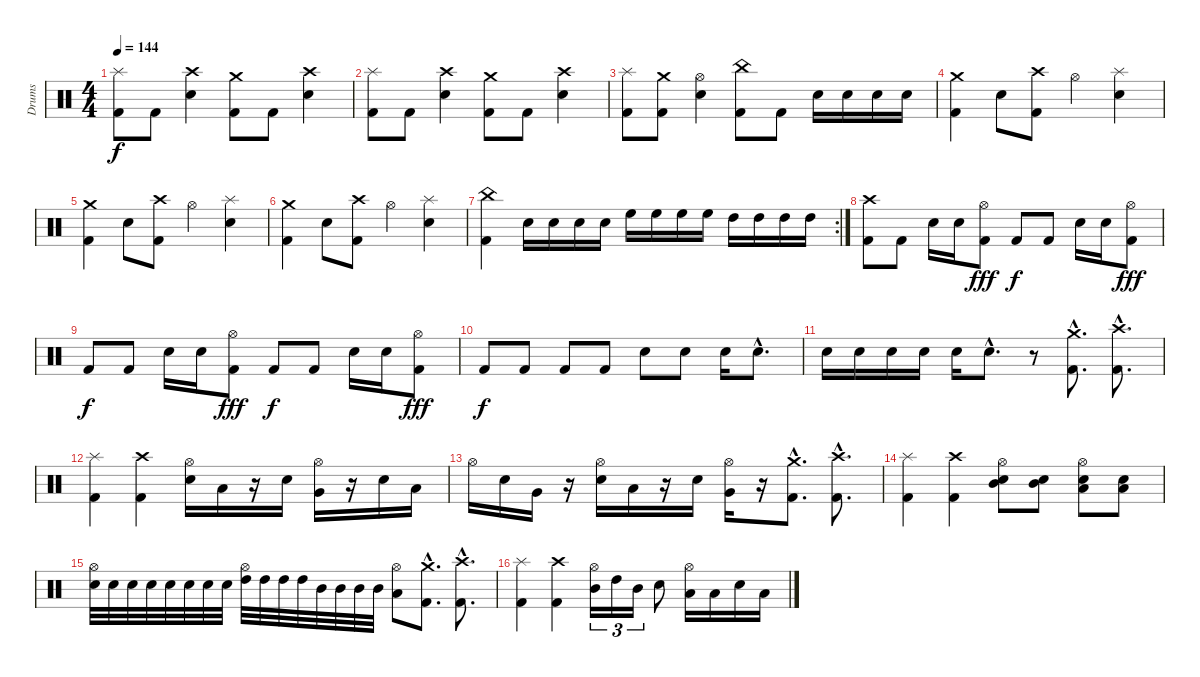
\track ("Drums" "Drums") {instrument percussion}
\staff {score}
\articulation defaults
\ts (4 4)
\tempo 144
\clef neutral
\ks c
("Kick (hit) 2" "Splash (hit)").8{dy f} "Kick (hit) 2".8 ("Snare (hit) 2" "Crash high (hit)").4 ("Kick (hit) 2" "Crash medium (hit)").8 "Kick (hit) 2".8 ("Snare (hit) 2" "Crash high (hit)").4 |
("Kick (hit) 2" "Splash (hit)").8 "Kick (hit) 2".8 ("Snare (hit) 2" "Crash high (hit)").4 ("Kick (hit) 2" "Crash medium (hit)").8 "Kick (hit) 2".8 ("Snare (hit) 2" "Crash high (hit)").4 |
("Kick (hit) 2" "Splash (hit)").8 ("Kick (hit) 2" "Crash medium (hit)").8 ("Snare (hit) 2" "Hi-Hat (open)").4 ("Kick (hit) 2" "China (hit)").8 "Kick (hit) 2".8 "Snare (hit) 2".16 "Snare (hit) 2".16 "Snare (hit) 2".16 "Snare (hit) 2".16 |
("Kick (hit) 2" "Crash medium (hit)").4 "Snare (hit) 2".8 ("Kick (hit) 2" "Crash high (hit)").8 "Hi-Hat (open)".4 ("Snare (hit) 2" "Splash (hit)").4 |
("Kick (hit) 2" "Crash medium (hit)").4 "Snare (hit) 2".8 ("Kick (hit) 2" "Crash high (hit)").8 "Hi-Hat (open)".4 ("Snare (hit) 2" "Splash (hit)").4 |
("Kick (hit) 2" "Crash medium (hit)").4 "Snare (hit) 2".8 ("Kick (hit) 2" "Crash high (hit)").8 "Hi-Hat (open)".4 ("Snare (hit) 2" "Splash (hit)").4 |
\rc 2
("Kick (hit) 2" "China (hit)").4 "Snare (hit) 2".16 "Snare (hit) 2".16 "Snare (hit) 2".16 "Snare (hit) 2".16 "High Floor Tom (hit)".16 "High Floor Tom (hit)".16 "High Floor Tom (hit)".16 "High Floor Tom (hit)".16 "High Tom (hit)".16 "High Tom (hit)".16 "High Tom (hit)".16 "High Tom (hit)".16 |
("Kick (hit) 2" "Crash high (hit)").8 "Kick (hit) 2".8 "Snare (hit) 2".16 "Snare (hit) 2".16 ("Kick (hit) 2" "Hi-Hat (open)").8{dy fff} "Kick (hit) 2".8{dy f} "Kick (hit) 2".8 "Snare (hit) 2".16 "Snare (hit) 2".16 ("Kick (hit) 2" "Hi-Hat (open)").8{dy fff} |
"Kick (hit) 2".8{dy f} "Kick (hit) 2".8 "Snare (hit) 2".16 "Snare (hit) 2".16 ("Kick (hit) 2" "Hi-Hat (open)").8{dy fff} "Kick (hit) 2".8{dy f} "Kick (hit) 2".8 "Snare (hit) 2".16 "Snare (hit) 2".16 ("Kick (hit) 2" "Hi-Hat (open)").8{dy fff} |
"Kick (hit) 2".8{dy f} "Kick (hit) 2".8 "Kick (hit) 2".8 "Kick (hit) 2".8 "Snare (hit) 2".8 "Snare (hit) 2".8 "Snare (hit) 2".16 "Snare (hit) 2"{hac}.8{d} |
"Snare (hit) 2".16 "Snare (hit) 2".16 "Snare (hit) 2".16 "Snare (hit) 2".16 "Snare (hit) 2".16 "Snare (hit) 2"{hac}.8{d} r.8 ("Kick (hit) 2"{hac} "Crash medium (hit)"{hac}).8{d} ("Kick (hit) 2"{hac} "Crash high (hit)"{hac}).8{d} |
("Kick (hit) 2" "Splash (hit)").4 ("Kick (hit) 2" "Crash high (hit)").4 ("Snare (hit) 2" "Hi-Hat (open)").16 "Low Floor Tom (hit)".16 r.16 "Snare (hit) 2".16 ("Very Low Tom (hit)" "Hi-Hat (open)").16 r.16 "Snare (hit) 2".16 "Low Floor Tom (hit)".16 |
"Hi-Hat (open)".16 "Snare (hit) 2".16 "Very Low Tom (hit)".16 r.16 ("Snare (hit) 2" "Hi-Hat (open)").16 "Low Floor Tom (hit)".16 r.16 "Snare (hit) 2".16 ("Very Low Tom (hit)" "Hi-Hat (open)").16 r.16 ("Kick (hit) 2"{hac} "Crash medium (hit)"{hac}).8{d} ("Kick (hit) 2"{hac} "Crash high (hit)"{hac}).8{d} |
("Kick (hit) 2" "Splash (hit)").4 ("Kick (hit) 2" "Crash high (hit)").4 ("Mid Tom (hit)" "Snare (hit) 2" "Hi-Hat (open)").8 ("Mid Tom (hit)" "Snare (hit) 2").8 ("Low Tom (hit)" "Snare (hit) 2" "Hi-Hat (open)").8 ("Low Tom (hit)" "Snare (hit) 2").8 |
("Snare (hit) 2" "Hi-Hat (open)").32 "Snare (hit) 2".32 "Snare (hit) 2".32 "Snare (hit) 2".32 "Snare (hit) 2".32 "Snare (hit) 2".32 "Snare (hit) 2".32 "Snare (hit) 2".32 ("High Tom (hit)" "Hi-Hat (open)").32 "High Tom (hit)".32 "High Tom (hit)".32 "High Tom (hit)".32 "Mid Tom (hit)".32 "Mid Tom (hit)".32 "Mid Tom (hit)".32 "Mid Tom (hit)".32 ("Low Floor Tom (hit)" "Hi-Hat (open)").8 ("Kick (hit) 2"{hac} "Crash medium (hit)"{hac}).8{d} ("Kick (hit) 2"{hac} "Crash high (hit)"{hac}).8{d} |
("Kick (hit) 2" "Splash (hit)").4 ("Kick (hit) 2" "Crash high (hit)").4 ("Mid Tom (hit)" "Hi-Hat (open)").16{tu (3 2)} "High Tom (hit)".16{tu (3 2)} "Mid Tom (hit)".16{tu (3 2)} "Snare (hit) 2".8 ("Low Tom (hit)" "Hi-Hat (open)").16 "Low Floor Tom (hit)".16 "Snare (hit) 2".16 "Low Tom (hit)".16
